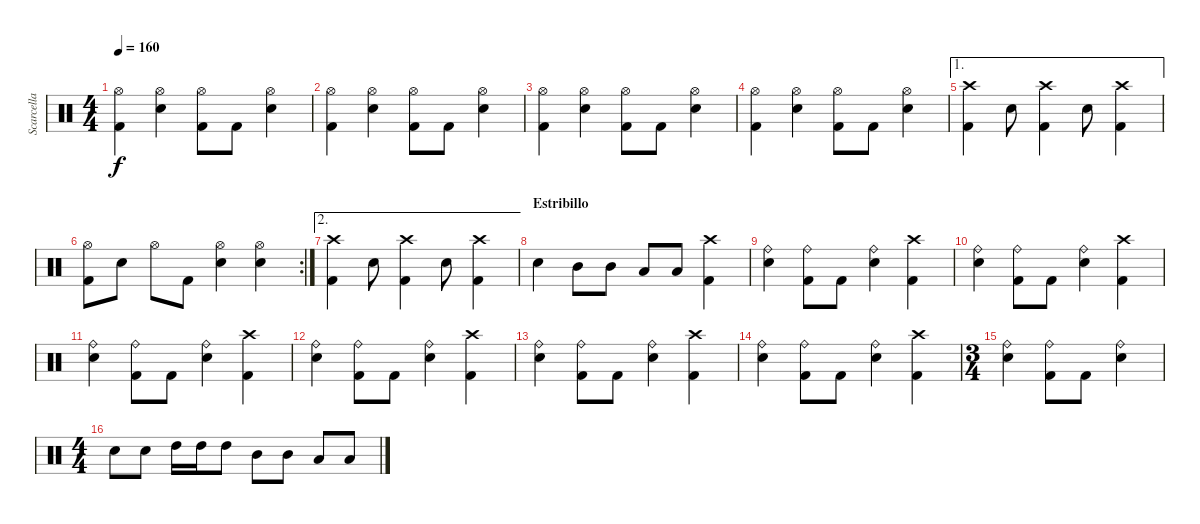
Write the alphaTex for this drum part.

\track ("Scarcella" "Scarcella") {instrument percussion}
\staff {score}
\articulation defaults
\ts (4 4)
\tempo 160
\clef neutral
\ks c
("Hi-Hat (open)" "Kick (hit) 2").4{dy f} ("Hi-Hat (open)" "Snare (hit) 2").4 ("Hi-Hat (open)" "Kick (hit) 2").8 "Kick (hit) 2".8 ("Hi-Hat (open)" "Snare (hit) 2").4 |
("Hi-Hat (open)" "Kick (hit) 2").4 ("Hi-Hat (open)" "Snare (hit) 2").4 ("Hi-Hat (open)" "Kick (hit) 2").8 "Kick (hit) 2".8 ("Hi-Hat (open)" "Snare (hit) 2").4 |
("Hi-Hat (open)" "Kick (hit) 2").4 ("Hi-Hat (open)" "Snare (hit) 2").4 ("Hi-Hat (open)" "Kick (hit) 2").8 "Kick (hit) 2".8 ("Hi-Hat (open)" "Snare (hit) 2").4 |
("Hi-Hat (open)" "Kick (hit) 2").4 ("Hi-Hat (open)" "Snare (hit) 2").4 ("Hi-Hat (open)" "Kick (hit) 2").8 "Kick (hit) 2".8 ("Hi-Hat (open)" "Snare (hit) 2").4 |
\ae 1
("Crash high (hit)" "Kick (hit) 2").4 "Snare (hit) 2".8 ("Crash high (hit)" "Kick (hit) 2").4 "Snare (hit) 2".8 ("Crash high (hit)" "Kick (hit) 2").4 |
\rc 2
("Hi-Hat (open)" "Kick (hit) 2").8 "Snare (hit) 2".8 "Hi-Hat (open)".8 "Kick (hit) 2".8 ("Hi-Hat (open)" "Snare (hit) 2").4 ("Hi-Hat (open)" "Snare (hit) 2").4 |
\ae 2
("Crash high (hit)" "Kick (hit) 2").4 "Snare (hit) 2".8 ("Crash high (hit)" "Kick (hit) 2").4 "Snare (hit) 2".8 ("Crash high (hit)" "Kick (hit) 2").4 |
\section ("" "Estribillo")
"Snare (hit) 2".4 "Mid Tom (hit)".8 "Mid Tom (hit)".8 "Low Tom (hit)".8 "Low Tom (hit)".8 ("Crash high (hit)" "Kick (hit) 2").4 |
("Ride (bell)" "Snare (hit) 2").4 ("Ride (bell)" "Kick (hit) 2").8 "Kick (hit) 2".8 ("Ride (bell)" "Snare (hit) 2").4 ("Crash high (hit)" "Kick (hit) 2").4 |
("Ride (bell)" "Snare (hit) 2").4 ("Ride (bell)" "Kick (hit) 2").8 "Kick (hit) 2".8 ("Ride (bell)" "Snare (hit) 2").4 ("Crash high (hit)" "Kick (hit) 2").4 |
("Ride (bell)" "Snare (hit) 2").4 ("Ride (bell)" "Kick (hit) 2").8 "Kick (hit) 2".8 ("Ride (bell)" "Snare (hit) 2").4 ("Crash high (hit)" "Kick (hit) 2").4 |
("Ride (bell)" "Snare (hit) 2").4 ("Ride (bell)" "Kick (hit) 2").8 "Kick (hit) 2".8 ("Ride (bell)" "Snare (hit) 2").4 ("Crash high (hit)" "Kick (hit) 2").4 |
("Ride (bell)" "Snare (hit) 2").4 ("Ride (bell)" "Kick (hit) 2").8 "Kick (hit) 2".8 ("Ride (bell)" "Snare (hit) 2").4 ("Crash high (hit)" "Kick (hit) 2").4 |
("Ride (bell)" "Snare (hit) 2").4 ("Ride (bell)" "Kick (hit) 2").8 "Kick (hit) 2".8 ("Ride (bell)" "Snare (hit) 2").4 ("Crash high (hit)" "Kick (hit) 2").4 |
\ts (3 4)
("Ride (bell)" "Snare (hit) 2").4 ("Ride (bell)" "Kick (hit) 2").8 "Kick (hit) 2".8 ("Ride (bell)" "Snare (hit) 2").4 |
\ts (4 4)
"Snare (hit) 2".8 "Snare (hit) 2".8 "High Tom (hit)".16 "High Tom (hit)".16 "High Tom (hit)".8 "Mid Tom (hit)".8 "Mid Tom (hit)".8 "Low Tom (hit)".8 "Low Tom (hit)".8
